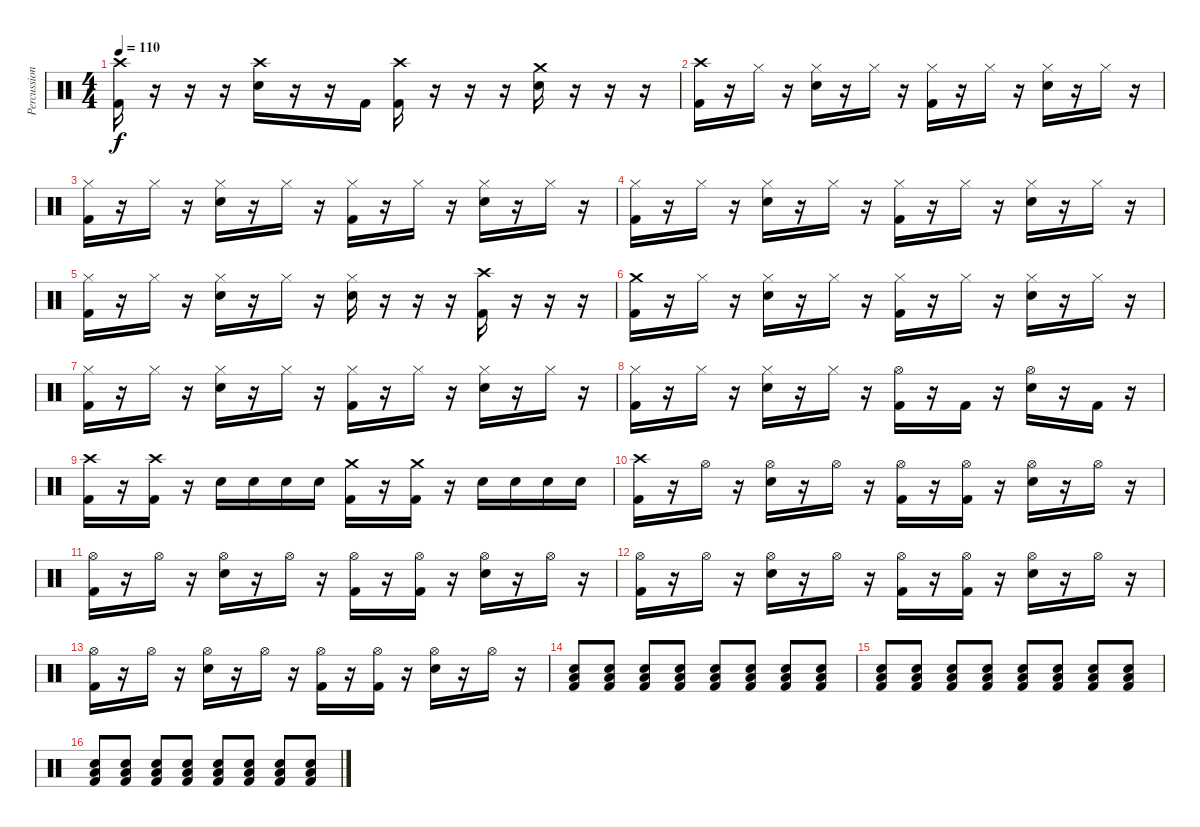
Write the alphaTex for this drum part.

\track ("Percussion" "Percussion") {instrument percussion}
\staff {score}
\articulation defaults
\ts (4 4)
\tempo 110
\clef neutral
\ks c
("Crash high (hit)" "Kick (hit) 2").16{dy f} r.16 r.16 r.16 ("Crash high (hit)" "Snare (hit) 2").16 r.16 r.16 "Kick (hit) 2".16 ("Crash high (hit)" "Kick (hit) 2").16 r.16 r.16 r.16 ("Crash medium (hit)" "Snare (hit) 2").16 r.16 r.16 r.16 |
("Crash high (hit)" "Kick (hit) 2").16 r.16 "Hi-Hat (closed)".16 r.16 ("Hi-Hat (closed)" "Snare (hit) 2").16 r.16 "Hi-Hat (closed)".16 r.16 ("Hi-Hat (closed)" "Kick (hit) 2").16 r.16 "Hi-Hat (closed)".16 r.16 ("Hi-Hat (closed)" "Snare (hit) 2").16 r.16 "Hi-Hat (closed)".16 r.16 |
("Hi-Hat (closed)" "Kick (hit) 2").16 r.16 "Hi-Hat (closed)".16 r.16 ("Hi-Hat (closed)" "Snare (hit) 2").16 r.16 "Hi-Hat (closed)".16 r.16 ("Hi-Hat (closed)" "Kick (hit) 2").16 r.16 "Hi-Hat (closed)".16 r.16 ("Hi-Hat (closed)" "Snare (hit) 2").16 r.16 "Hi-Hat (closed)".16 r.16 |
("Hi-Hat (closed)" "Kick (hit) 2").16 r.16 "Hi-Hat (closed)".16 r.16 ("Hi-Hat (closed)" "Snare (hit) 2").16 r.16 "Hi-Hat (closed)".16 r.16 ("Hi-Hat (closed)" "Kick (hit) 2").16 r.16 "Hi-Hat (closed)".16 r.16 ("Hi-Hat (closed)" "Snare (hit) 2").16 r.16 "Hi-Hat (closed)".16 r.16 |
("Hi-Hat (closed)" "Kick (hit) 2").16 r.16 "Hi-Hat (closed)".16 r.16 ("Hi-Hat (closed)" "Snare (hit) 2").16 r.16 "Hi-Hat (closed)".16 r.16 ("Hi-Hat (closed)" "Snare (hit) 2").16 r.16 r.16 r.16 ("Crash high (hit)" "Kick (hit) 2").16 r.16 r.16 r.16 |
("Crash medium (hit)" "Kick (hit) 2").16 r.16 "Hi-Hat (closed)".16 r.16 ("Hi-Hat (closed)" "Snare (hit) 2").16 r.16 "Hi-Hat (closed)".16 r.16 ("Hi-Hat (closed)" "Kick (hit) 2").16 r.16 "Hi-Hat (closed)".16 r.16 ("Hi-Hat (closed)" "Snare (hit) 2").16 r.16 "Hi-Hat (closed)".16 r.16 |
("Hi-Hat (closed)" "Kick (hit) 2").16 r.16 "Hi-Hat (closed)".16 r.16 ("Hi-Hat (closed)" "Snare (hit) 2").16 r.16 "Hi-Hat (closed)".16 r.16 ("Hi-Hat (closed)" "Kick (hit) 2").16 r.16 "Hi-Hat (closed)".16 r.16 ("Hi-Hat (closed)" "Snare (hit) 2").16 r.16 "Hi-Hat (closed)".16 r.16 |
("Hi-Hat (closed)" "Kick (hit) 2").16 r.16 "Hi-Hat (closed)".16 r.16 ("Hi-Hat (closed)" "Snare (hit) 2").16 r.16 "Hi-Hat (closed)".16 r.16 ("Hi-Hat (open)" "Kick (hit) 2").16 r.16 "Kick (hit) 2".16 r.16 ("Hi-Hat (open)" "Snare (hit) 2").16 r.16 "Kick (hit) 2".16 r.16 |
("Crash high (hit)" "Kick (hit) 2").16 r.16 ("Crash high (hit)" "Kick (hit) 2").16 r.16 "Snare (hit) 2".16 "Snare (hit) 2".16 "Snare (hit) 2".16 "Snare (hit) 2".16 ("Crash medium (hit)" "Kick (hit) 2").16 r.16 ("Crash medium (hit)" "Kick (hit) 2").16 r.16 "Snare (hit) 2".16 "Snare (hit) 2".16 "Snare (hit) 2".16 "Snare (hit) 2".16 |
("Crash high (hit)" "Kick (hit) 2").16 r.16 "Hi-Hat (open)".16 r.16 ("Hi-Hat (open)" "Snare (hit) 2").16 r.16 "Hi-Hat (open)".16 r.16 ("Hi-Hat (open)" "Kick (hit) 2").16 r.16 ("Hi-Hat (open)" "Kick (hit) 2").16 r.16 ("Hi-Hat (open)" "Snare (hit) 2").16 r.16 "Hi-Hat (open)".16 r.16 |
("Hi-Hat (open)" "Kick (hit) 2").16 r.16 "Hi-Hat (open)".16 r.16 ("Hi-Hat (open)" "Snare (hit) 2").16 r.16 "Hi-Hat (open)".16 r.16 ("Hi-Hat (open)" "Kick (hit) 2").16 r.16 ("Hi-Hat (open)" "Kick (hit) 2").16 r.16 ("Hi-Hat (open)" "Snare (hit) 2").16 r.16 "Hi-Hat (open)".16 r.16 |
("Hi-Hat (open)" "Kick (hit) 2").16 r.16 "Hi-Hat (open)".16 r.16 ("Hi-Hat (open)" "Snare (hit) 2").16 r.16 "Hi-Hat (open)".16 r.16 ("Hi-Hat (open)" "Kick (hit) 2").16 r.16 ("Hi-Hat (open)" "Kick (hit) 2").16 r.16 ("Hi-Hat (open)" "Snare (hit) 2").16 r.16 "Hi-Hat (open)".16 r.16 |
("Hi-Hat (open)" "Kick (hit) 2").16 r.16 "Hi-Hat (open)".16 r.16 ("Hi-Hat (open)" "Snare (hit) 2").16 r.16 "Hi-Hat (open)".16 r.16 ("Hi-Hat (open)" "Kick (hit) 2").16 r.16 ("Hi-Hat (open)" "Kick (hit) 2").16 r.16 ("Hi-Hat (open)" "Snare (hit) 2").16 r.16 "Hi-Hat (open)".16 r.16 |
("Snare (hit) 2" "Low Floor Tom (hit)" "Kick (hit) 2").8{volume 4} ("Snare (hit) 2" "Low Floor Tom (hit)" "Kick (hit) 2").8 ("Snare (hit) 2" "Low Floor Tom (hit)" "Kick (hit) 2").8{volume 5} ("Snare (hit) 2" "Low Floor Tom (hit)" "Kick (hit) 2").8 ("Snare (hit) 2" "Low Floor Tom (hit)" "Kick (hit) 2").8{volume 6} ("Snare (hit) 2" "Low Floor Tom (hit)" "Kick (hit) 2").8 ("Snare (hit) 2" "Low Floor Tom (hit)" "Kick (hit) 2").8{volume 7} ("Snare (hit) 2" "Low Floor Tom (hit)" "Kick (hit) 2").8 |
("Snare (hit) 2" "Low Floor Tom (hit)" "Kick (hit) 2").8{volume 8} ("Snare (hit) 2" "Low Floor Tom (hit)" "Kick (hit) 2").8 ("Snare (hit) 2" "Low Floor Tom (hit)" "Kick (hit) 2").8{volume 9} ("Snare (hit) 2" "Low Floor Tom (hit)" "Kick (hit) 2").8 ("Snare (hit) 2" "Low Floor Tom (hit)" "Kick (hit) 2").8{volume 10} ("Snare (hit) 2" "Low Floor Tom (hit)" "Kick (hit) 2").8 ("Snare (hit) 2" "Low Floor Tom (hit)" "Kick (hit) 2").8{volume 11} ("Snare (hit) 2" "Low Floor Tom (hit)" "Kick (hit) 2").8 |
("Snare (hit) 2" "Low Floor Tom (hit)" "Kick (hit) 2").8{volume 12} ("Snare (hit) 2" "Low Floor Tom (hit)" "Kick (hit) 2").8 ("Snare (hit) 2" "Low Floor Tom (hit)" "Kick (hit) 2").8{volume 13} ("Snare (hit) 2" "Low Floor Tom (hit)" "Kick (hit) 2").8 ("Snare (hit) 2" "Low Floor Tom (hit)" "Kick (hit) 2").8 ("Snare (hit) 2" "Low Floor Tom (hit)" "Kick (hit) 2").8 ("Snare (hit) 2" "Low Floor Tom (hit)" "Kick (hit) 2").8 ("Snare (hit) 2" "Low Floor Tom (hit)" "Kick (hit) 2").8
